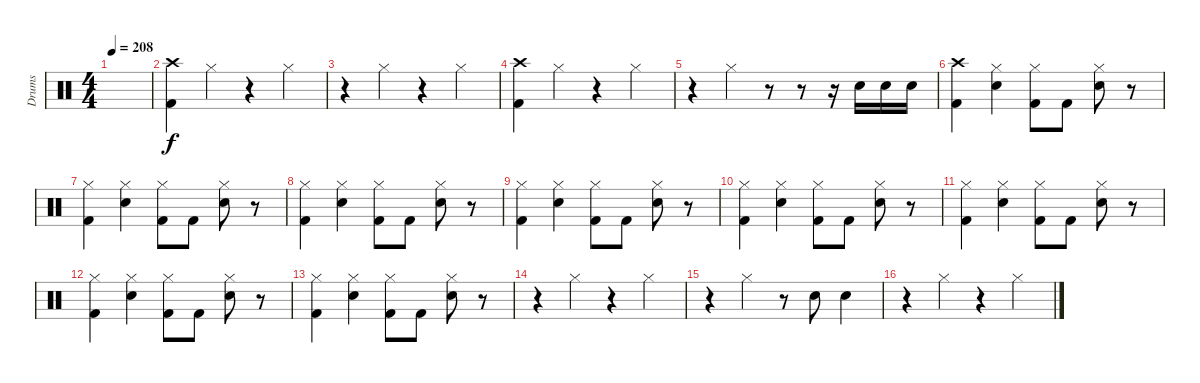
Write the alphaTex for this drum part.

\track ("Drums" "Drums") {instrument percussion}
\staff {score}
\articulation defaults
\ts (4 4)
\tempo 208
\clef neutral
\ks c
|
("Crash high (hit)" "Kick (hit) 2").4 "Hi-Hat (closed)".4 r.4 "Hi-Hat (closed)".4 |
r.4 "Hi-Hat (closed)".4 r.4 "Hi-Hat (closed)".4 |
("Crash high (hit)" "Kick (hit) 2").4 "Hi-Hat (closed)".4 r.4 "Hi-Hat (closed)".4 |
r.4 "Hi-Hat (closed)".4 r.8 r.8 r.16 "Snare (hit) 2".16 "Snare (hit) 2".16 "Snare (hit) 2".16 |
("Crash high (hit)" "Kick (hit) 2").4 ("Hi-Hat (closed)" "Snare (hit) 2").4 ("Hi-Hat (closed)" "Kick (hit) 2").8 "Kick (hit) 2".8 ("Hi-Hat (closed)" "Snare (hit) 2").8 r.8 |
("Hi-Hat (closed)" "Kick (hit) 2").4 ("Hi-Hat (closed)" "Snare (hit) 2").4 ("Hi-Hat (closed)" "Kick (hit) 2").8 "Kick (hit) 2".8 ("Hi-Hat (closed)" "Snare (hit) 2").8 r.8 |
("Hi-Hat (closed)" "Kick (hit) 2").4 ("Hi-Hat (closed)" "Snare (hit) 2").4 ("Hi-Hat (closed)" "Kick (hit) 2").8 "Kick (hit) 2".8 ("Hi-Hat (closed)" "Snare (hit) 2").8 r.8 |
("Hi-Hat (closed)" "Kick (hit) 2").4 ("Hi-Hat (closed)" "Snare (hit) 2").4 ("Hi-Hat (closed)" "Kick (hit) 2").8 "Kick (hit) 2".8 ("Hi-Hat (closed)" "Snare (hit) 2").8 r.8 |
("Hi-Hat (closed)" "Kick (hit) 2").4 ("Hi-Hat (closed)" "Snare (hit) 2").4 ("Hi-Hat (closed)" "Kick (hit) 2").8 "Kick (hit) 2".8 ("Hi-Hat (closed)" "Snare (hit) 2").8 r.8 |
("Hi-Hat (closed)" "Kick (hit) 2").4 ("Hi-Hat (closed)" "Snare (hit) 2").4 ("Hi-Hat (closed)" "Kick (hit) 2").8 "Kick (hit) 2".8 ("Hi-Hat (closed)" "Snare (hit) 2").8 r.8 |
("Hi-Hat (closed)" "Kick (hit) 2").4 ("Hi-Hat (closed)" "Snare (hit) 2").4 ("Hi-Hat (closed)" "Kick (hit) 2").8 "Kick (hit) 2".8 ("Hi-Hat (closed)" "Snare (hit) 2").8 r.8 |
("Hi-Hat (closed)" "Kick (hit) 2").4 ("Hi-Hat (closed)" "Snare (hit) 2").4 ("Hi-Hat (closed)" "Kick (hit) 2").8 "Kick (hit) 2".8 ("Hi-Hat (closed)" "Snare (hit) 2").8 r.8 |
r.4 "Hi-Hat (closed)".4 r.4 "Hi-Hat (closed)".4 |
r.4 "Hi-Hat (closed)".4 r.8 "Snare (hit) 2".8 "Snare (hit) 2".4 |
r.4 "Hi-Hat (closed)".4 r.4 "Hi-Hat (closed)".4
